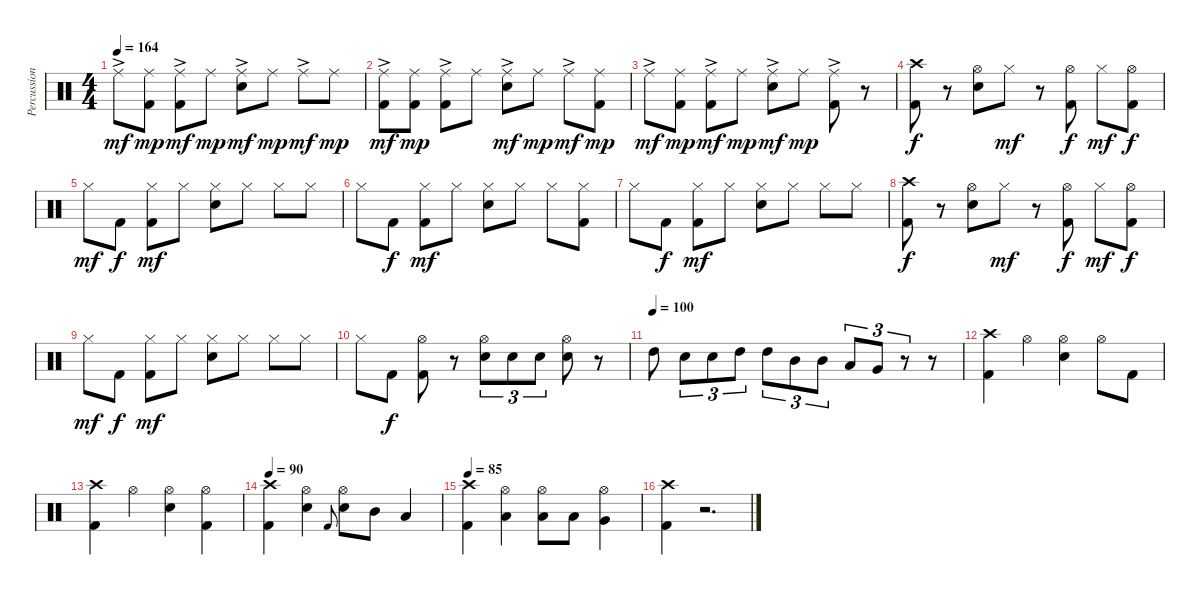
\track ("Percussion" "Percussion") {instrument percussion}
\staff {score}
\articulation defaults
\ts (4 4)
\tempo 164
\clef neutral
\ks c "Ride (middle)"{ac}.8{dy mf}
("Ride (middle)" "Kick (hit) 2").8{dy mp} ("Ride (middle)"{ac} "Kick (hit) 2").8{dy mf} "Ride (middle)".8{dy mp} ("Ride (middle)"{ac} "Electric Snare (hit)").8{dy mf} "Ride (middle)".8{dy mp} "Ride (middle)"{ac}.8{dy mf} "Ride (middle)".8{dy mp} |
("Ride (middle)"{ac} "Kick (hit) 2").8{dy mf} ("Ride (middle)" "Kick (hit) 2").8{dy mp} ("Ride (middle)"{ac} "Kick (hit) 2").8 "Ride (middle)".8 ("Ride (middle)"{ac} "Electric Snare (hit)").8{dy mf} "Ride (middle)".8{dy mp} "Ride (middle)"{ac}.8{dy mf} ("Ride (middle)" "Kick (hit) 2").8{dy mp} |
"Ride (middle)"{ac}.8{dy mf} ("Ride (middle)" "Kick (hit) 2").8{dy mp} ("Ride (middle)"{ac} "Kick (hit) 2").8{dy mf} "Ride (middle)".8{dy mp} ("Ride (middle)"{ac} "Electric Snare (hit)").8{dy mf} "Ride (middle)".8{dy mp} ("Ride (middle)"{ac} "Kick (hit) 2").8 r.8 |
("Crash high (hit)" "Kick (hit) 2").8{dy f} r.8 ("Hi-Hat (open)" "Electric Snare (hit)").8 "Hi-Hat (closed)".8{dy mf} r.8 ("Hi-Hat (open)" "Kick (hit) 2").8{dy f} "Hi-Hat (closed)".8{dy mf} ("Hi-Hat (open)" "Kick (hit) 2").8{dy f} |
"Hi-Hat (closed)".8{dy mf} "Kick (hit) 2".8{dy f} ("Hi-Hat (closed)" "Kick (hit) 2").8{dy mf} "Hi-Hat (closed)".8 ("Hi-Hat (closed)" "Electric Snare (hit)").8 "Hi-Hat (closed)".8 "Hi-Hat (closed)".8 "Hi-Hat (closed)".8 |
"Hi-Hat (closed)".8 "Kick (hit) 2".8{dy f} ("Hi-Hat (closed)" "Kick (hit) 2").8{dy mf} "Hi-Hat (closed)".8 ("Hi-Hat (closed)" "Electric Snare (hit)").8 "Hi-Hat (closed)".8 "Hi-Hat (closed)".8 ("Hi-Hat (closed)" "Kick (hit) 2").8 |
"Hi-Hat (closed)".8 "Kick (hit) 2".8{dy f} ("Hi-Hat (closed)" "Kick (hit) 2").8{dy mf} "Hi-Hat (closed)".8 ("Hi-Hat (closed)" "Electric Snare (hit)").8 "Hi-Hat (closed)".8 "Hi-Hat (closed)".8 "Hi-Hat (closed)".8 |
("Crash high (hit)" "Kick (hit) 2").8{dy f} r.8 ("Hi-Hat (open)" "Electric Snare (hit)").8 "Hi-Hat (closed)".8{dy mf} r.8 ("Hi-Hat (open)" "Kick (hit) 2").8{dy f} "Hi-Hat (closed)".8{dy mf} ("Hi-Hat (open)" "Kick (hit) 2").8{dy f} |
"Hi-Hat (closed)".8{dy mf} "Kick (hit) 2".8{dy f} ("Hi-Hat (closed)" "Kick (hit) 2").8{dy mf} "Hi-Hat (closed)".8 ("Hi-Hat (closed)" "Electric Snare (hit)").8 "Hi-Hat (closed)".8 "Hi-Hat (closed)".8 "Hi-Hat (closed)".8 |
"Hi-Hat (closed)".8 "Kick (hit) 2".8{dy f} ("Hi-Hat (open)" "Kick (hit) 2").8 r.8 ("Hi-Hat (open)" "Electric Snare (hit)").8{tu (3 2)} "Electric Snare (hit)".8{tu (3 2)} "Electric Snare (hit)".8{tu (3 2)} ("Hi-Hat (open)" "Electric Snare (hit)").8 r.8 |
\tempo (100)
"High Tom (hit)".8 "Electric Snare (hit)".8{tu (3 2)} "Electric Snare (hit)".8{tu (3 2)} "High Tom (hit)".8{tu (3 2)} "High Tom (hit)".8{tu (3 2)} "Mid Tom (hit)".8{tu (3 2)} "Mid Tom (hit)".8{tu (3 2)} "Low Tom (hit)".8{tu (3 2)} "Very Low Tom (hit)".8{tu (3 2)} r.8{tu (3 2)} r.8 |
("Crash high (hit)" "Kick (hit) 2").4 "Hi-Hat (open)".4 ("Hi-Hat (open)" "Electric Snare (hit)").4 "Hi-Hat (open)".8 "Kick (hit) 2".8 |
("Crash high (hit)" "Kick (hit) 2").4 "Hi-Hat (open)".4 ("Hi-Hat (open)" "Electric Snare (hit)").4 ("Hi-Hat (open)" "Kick (hit) 2").4 |
\tempo 90
("Crash high (hit)" "Kick (hit) 2").4 ("Hi-Hat (open)" "Electric Snare (hit)").4 "Kick (hit) 2".8{gr onbeat} ("Hi-Hat (open)" "Electric Snare (hit)").8 "Mid Tom (hit)".8 "Low Tom (hit)".4 |
\tempo 85
("Crash high (hit)" "Kick (hit) 2").4 ("Hi-Hat (open)" "Low Tom (hit)").4 ("Hi-Hat (open)" "Low Tom (hit)").8 "Low Tom (hit)".8 ("Hi-Hat (open)" "Very Low Tom (hit)").4 |
("Crash high (hit)" "Kick (hit) 2").4 r.2{d}
